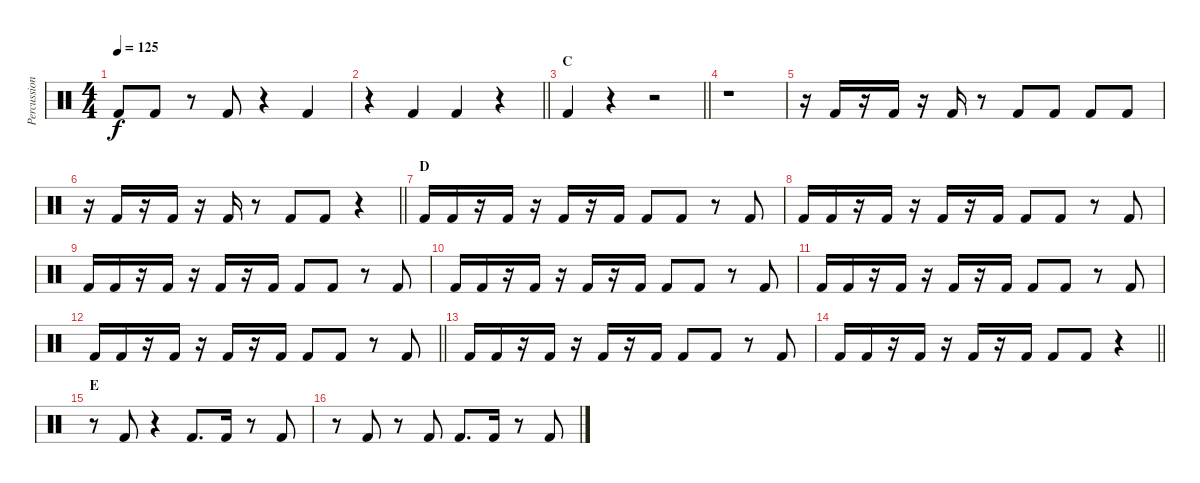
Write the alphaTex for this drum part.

\track ("Percussion (Bass Drum)" "Percussion") {instrument percussion}
\staff {score}
\articulation defaults
\ts (4 4)
\tempo 125
\clef neutral
\ks c "Kick (hit) 2".8{dy f} "Kick (hit) 2".8
r.8 "Kick (hit) 2".8 r.4 "Kick (hit) 2".4 |
\barLineRight lightlight
r.4 "Kick (hit) 2".4 "Kick (hit) 2".4 r.4 |
\section ("" "C")
\barLineRight lightlight "Kick (hit) 2".4
r.4 r.2 |
r.1 |
r.16 "Kick (hit) 2".16 r.16 "Kick (hit) 2".16 r.16 "Kick (hit) 2".16 r.8 "Kick (hit) 2".8 "Kick (hit) 2".8 "Kick (hit) 2".8 "Kick (hit) 2".8 |
\barLineRight lightlight
r.16 "Kick (hit) 2".16 r.16 "Kick (hit) 2".16 r.16 "Kick (hit) 2".16 r.8 "Kick (hit) 2".8 "Kick (hit) 2".8 r.4 |
\section ("" "D")
"Kick (hit) 2".16 "Kick (hit) 2".16 r.16 "Kick (hit) 2".16 r.16 "Kick (hit) 2".16 r.16 "Kick (hit) 2".16 "Kick (hit) 2".8 "Kick (hit) 2".8 r.8 "Kick (hit) 2".8 |
"Kick (hit) 2".16 "Kick (hit) 2".16 r.16 "Kick (hit) 2".16 r.16 "Kick (hit) 2".16 r.16 "Kick (hit) 2".16 "Kick (hit) 2".8 "Kick (hit) 2".8 r.8 "Kick (hit) 2".8 |
"Kick (hit) 2".16 "Kick (hit) 2".16 r.16 "Kick (hit) 2".16 r.16 "Kick (hit) 2".16 r.16 "Kick (hit) 2".16 "Kick (hit) 2".8 "Kick (hit) 2".8 r.8 "Kick (hit) 2".8 |
"Kick (hit) 2".16 "Kick (hit) 2".16 r.16 "Kick (hit) 2".16 r.16 "Kick (hit) 2".16 r.16 "Kick (hit) 2".16 "Kick (hit) 2".8 "Kick (hit) 2".8 r.8 "Kick (hit) 2".8 |
"Kick (hit) 2".16 "Kick (hit) 2".16 r.16 "Kick (hit) 2".16 r.16 "Kick (hit) 2".16 r.16 "Kick (hit) 2".16 "Kick (hit) 2".8 "Kick (hit) 2".8 r.8 "Kick (hit) 2".8 |
\barLineRight lightlight "Kick (hit) 2".16 "Kick (hit) 2".16
r.16 "Kick (hit) 2".16 r.16 "Kick (hit) 2".16 r.16 "Kick (hit) 2".16 "Kick (hit) 2".8 "Kick (hit) 2".8 r.8 "Kick (hit) 2".8 |
"Kick (hit) 2".16 "Kick (hit) 2".16 r.16 "Kick (hit) 2".16 r.16 "Kick (hit) 2".16 r.16 "Kick (hit) 2".16 "Kick (hit) 2".8 "Kick (hit) 2".8 r.8 "Kick (hit) 2".8 |
\barLineRight lightlight "Kick (hit) 2".16 "Kick (hit) 2".16
r.16 "Kick (hit) 2".16 r.16 "Kick (hit) 2".16 r.16 "Kick (hit) 2".16 "Kick (hit) 2".8 "Kick (hit) 2".8 r.4 |
\section ("" "E")
r.8 "Kick (hit) 2".8 r.4 "Kick (hit) 2".8{d} "Kick (hit) 2".16 r.8 "Kick (hit) 2".8 |
r.8 "Kick (hit) 2".8 r.8 "Kick (hit) 2".8 "Kick (hit) 2".8{d} "Kick (hit) 2".16 r.8 "Kick (hit) 2".8
